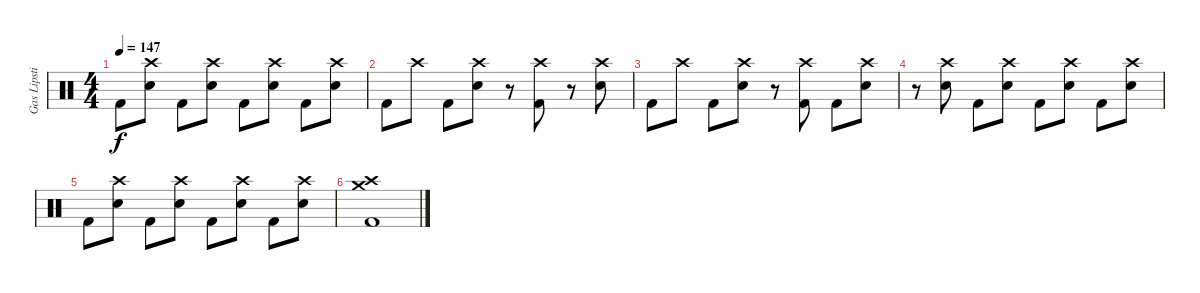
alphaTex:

\track ("Gas Lipstick (Drums)" "Gas Lipsti") {instrument percussion}
\staff {score}
\articulation defaults
\ts (4 4)
\tempo 147
\clef neutral
\ks c "Kick (hit) 2".8{dy f}
("Crash high (hit)" "Snare (hit) 2").8 "Kick (hit) 2".8 ("Crash high (hit)" "Snare (hit) 2").8 "Kick (hit) 2".8 ("Crash high (hit)" "Snare (hit) 2").8 "Kick (hit) 2".8 ("Crash high (hit)" "Snare (hit) 2").8 |
"Kick (hit) 2".8 "Crash high (hit)".8 "Kick (hit) 2".8 ("Crash high (hit)" "Snare (hit) 2").8 r.8 ("Crash high (hit)" "Kick (hit) 2").8 r.8 ("Crash high (hit)" "Snare (hit) 2").8 |
"Kick (hit) 2".8 "Crash high (hit)".8 "Kick (hit) 2".8 ("Crash high (hit)" "Snare (hit) 2").8 r.8 ("Crash high (hit)" "Kick (hit) 2").8 "Kick (hit) 2".8 ("Crash high (hit)" "Snare (hit) 2").8 |
r.8 ("Crash high (hit)" "Snare (hit) 2").8 "Kick (hit) 2".8 ("Crash high (hit)" "Snare (hit) 2").8 "Kick (hit) 2".8 ("Crash high (hit)" "Snare (hit) 2").8 "Kick (hit) 2".8 ("Crash high (hit)" "Snare (hit) 2").8 |
"Kick (hit) 2".8 ("Crash high (hit)" "Snare (hit) 2").8 "Kick (hit) 2".8 ("Crash high (hit)" "Snare (hit) 2").8 "Kick (hit) 2".8 ("Crash high (hit)" "Snare (hit) 2").8 "Kick (hit) 2".8 ("Crash high (hit)" "Snare (hit) 2").8 |
("Crash medium (hit)" "Crash high (hit)" "Kick (hit) 2").1
